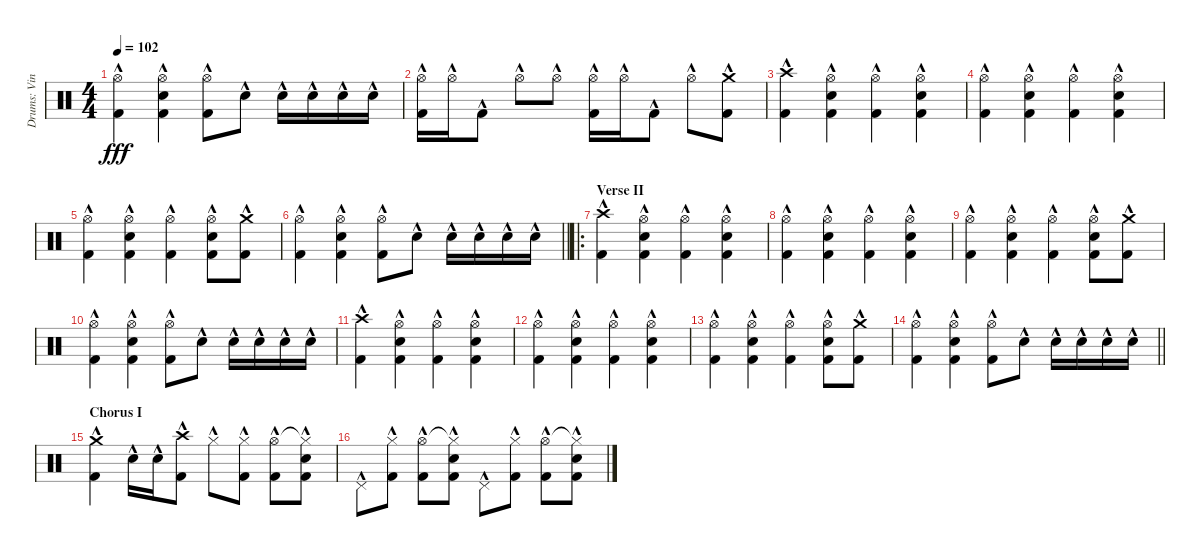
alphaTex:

\track ("Drums: Vinny" "Drums: Vin") {instrument percussion}
\staff {score}
\articulation defaults
\ts (4 4)
\tempo 102
\clef neutral
\ks c
("Hi-Hat (open)"{hac} "Kick (hit) 2"{hac}).4{dy fff} ("Hi-Hat (open)"{hac} "Snare (hit) 2"{hac} "Kick (hit) 2"{hac}).4 ("Hi-Hat (open)"{hac} "Kick (hit) 2"{hac}).8 "Snare (hit) 2"{hac}.8 "Snare (hit) 2"{hac}.16 "Snare (hit) 2"{hac}.16 "Snare (hit) 2"{hac}.16 "Snare (hit) 2"{hac}.16 |
("Hi-Hat (open)"{hac} "Kick (hit) 2"{hac}).16 "Hi-Hat (open)"{hac}.16 "Kick (hit) 2"{hac}.8 "Hi-Hat (open)"{hac}.8 "Hi-Hat (open)"{hac}.8 ("Hi-Hat (open)"{hac} "Kick (hit) 2"{hac}).16 "Hi-Hat (open)"{hac}.16 "Kick (hit) 2"{hac}.8 "Hi-Hat (open)"{hac}.8 ("Crash medium (hit)"{hac} "Kick (hit) 2"{hac}).8 |
("Crash high (hit)"{hac} "Kick (hit) 2"{hac}).4 ("Hi-Hat (open)"{hac} "Snare (hit) 2"{hac} "Kick (hit) 2"{hac}).4 ("Hi-Hat (open)"{hac} "Kick (hit) 2"{hac}).4 ("Hi-Hat (open)"{hac} "Snare (hit) 2"{hac} "Kick (hit) 2"{hac}).4 |
("Hi-Hat (open)"{hac} "Kick (hit) 2"{hac}).4 ("Hi-Hat (open)"{hac} "Snare (hit) 2"{hac} "Kick (hit) 2"{hac}).4 ("Hi-Hat (open)"{hac} "Kick (hit) 2"{hac}).4 ("Hi-Hat (open)"{hac} "Snare (hit) 2"{hac} "Kick (hit) 2"{hac}).4 |
("Hi-Hat (open)" "Kick (hit) 2"{hac}).4 ("Hi-Hat (open)"{hac} "Snare (hit) 2"{hac} "Kick (hit) 2"{hac}).4 ("Hi-Hat (open)"{hac} "Kick (hit) 2"{hac}).4 ("Hi-Hat (open)"{hac} "Snare (hit) 2"{hac} "Kick (hit) 2"{hac}).8 ("Crash medium (hit)"{hac} "Kick (hit) 2"{hac}).8 |
\barLineRight lightlight
("Hi-Hat (open)"{hac} "Kick (hit) 2"{hac}).4 ("Hi-Hat (open)"{hac} "Snare (hit) 2"{hac} "Kick (hit) 2"{hac}).4 ("Hi-Hat (open)"{hac} "Kick (hit) 2"{hac}).8 "Snare (hit) 2"{hac}.8 "Snare (hit) 2"{hac}.16 "Snare (hit) 2"{hac}.16 "Snare (hit) 2"{hac}.16 "Snare (hit) 2"{hac}.16 |
\ro
\section ("" "Verse II")
("Crash high (hit)"{hac} "Kick (hit) 2"{hac}).4 ("Hi-Hat (open)"{hac} "Snare (hit) 2"{hac} "Kick (hit) 2"{hac}).4 ("Hi-Hat (open)"{hac} "Kick (hit) 2"{hac}).4 ("Hi-Hat (open)"{hac} "Snare (hit) 2"{hac} "Kick (hit) 2"{hac}).4 |
("Hi-Hat (open)"{hac} "Kick (hit) 2"{hac}).4 ("Hi-Hat (open)"{hac} "Snare (hit) 2"{hac} "Kick (hit) 2"{hac}).4 ("Hi-Hat (open)"{hac} "Kick (hit) 2"{hac}).4 ("Hi-Hat (open)"{hac} "Snare (hit) 2"{hac} "Kick (hit) 2"{hac}).4 |
("Hi-Hat (open)" "Kick (hit) 2"{hac}).4 ("Hi-Hat (open)"{hac} "Snare (hit) 2"{hac} "Kick (hit) 2"{hac}).4 ("Hi-Hat (open)"{hac} "Kick (hit) 2"{hac}).4 ("Hi-Hat (open)"{hac} "Snare (hit) 2"{hac} "Kick (hit) 2"{hac}).8 ("Crash medium (hit)"{hac} "Kick (hit) 2"{hac}).8 |
("Hi-Hat (open)"{hac} "Kick (hit) 2"{hac}).4 ("Hi-Hat (open)"{hac} "Snare (hit) 2"{hac} "Kick (hit) 2"{hac}).4 ("Hi-Hat (open)"{hac} "Kick (hit) 2"{hac}).8 "Snare (hit) 2"{hac}.8 "Snare (hit) 2"{hac}.16 "Snare (hit) 2"{hac}.16 "Snare (hit) 2"{hac}.16 "Snare (hit) 2"{hac}.16 |
("Crash high (hit)"{hac} "Kick (hit) 2"{hac}).4 ("Hi-Hat (open)"{hac} "Snare (hit) 2"{hac} "Kick (hit) 2"{hac}).4 ("Hi-Hat (open)"{hac} "Kick (hit) 2"{hac}).4 ("Hi-Hat (open)"{hac} "Snare (hit) 2"{hac} "Kick (hit) 2"{hac}).4 |
("Hi-Hat (open)"{hac} "Kick (hit) 2"{hac}).4 ("Hi-Hat (open)"{hac} "Snare (hit) 2"{hac} "Kick (hit) 2"{hac}).4 ("Hi-Hat (open)"{hac} "Kick (hit) 2"{hac}).4 ("Hi-Hat (open)"{hac} "Snare (hit) 2"{hac} "Kick (hit) 2"{hac}).4 |
("Hi-Hat (open)" "Kick (hit) 2"{hac}).4 ("Hi-Hat (open)"{hac} "Snare (hit) 2"{hac} "Kick (hit) 2"{hac}).4 ("Hi-Hat (open)"{hac} "Kick (hit) 2"{hac}).4 ("Hi-Hat (open)"{hac} "Snare (hit) 2"{hac} "Kick (hit) 2"{hac}).8 ("Crash medium (hit)"{hac} "Kick (hit) 2"{hac}).8 |
\barLineRight lightlight
("Hi-Hat (open)"{hac} "Kick (hit) 2"{hac}).4 ("Hi-Hat (open)"{hac} "Snare (hit) 2"{hac} "Kick (hit) 2"{hac}).4 ("Hi-Hat (open)"{hac} "Kick (hit) 2"{hac}).8 "Snare (hit) 2"{hac}.8 "Snare (hit) 2"{hac}.16 "Snare (hit) 2"{hac}.16 "Snare (hit) 2"{hac}.16 "Snare (hit) 2"{hac}.16 |
\section ("" "Chorus I")
("Crash medium (hit)"{hac} "Kick (hit) 2"{hac}).4 "Snare (hit) 2"{hac}.16 "Snare (hit) 2"{hac}.16 ("Crash high (hit)"{hac} "Kick (hit) 2"{hac}).8 "Hi-Hat (closed)"{hac}.8 ("Hi-Hat (closed)"{hac} "Kick (hit) 2"{hac}).8 ("Hi-Hat (open)"{hac} "Kick (hit) 2"{hac}).8 ("Hi-Hat (closed)"{t} "Snare (hit) 2"{hac} "Kick (hit) 2").8 |
"Pedal Hi-Hat (hit)"{hac}.8 ("Hi-Hat (closed)"{hac} "Kick (hit) 2"{hac}).8 ("Hi-Hat (open)"{hac} "Kick (hit) 2"{hac}).8 ("Hi-Hat (closed)"{t} "Snare (hit) 2"{hac} "Kick (hit) 2").8 "Pedal Hi-Hat (hit)"{hac}.8 ("Hi-Hat (closed)"{hac} "Kick (hit) 2"{hac}).8 ("Hi-Hat (open)"{hac} "Kick (hit) 2"{hac}).8 ("Hi-Hat (closed)"{t} "Snare (hit) 2"{hac} "Kick (hit) 2").8
